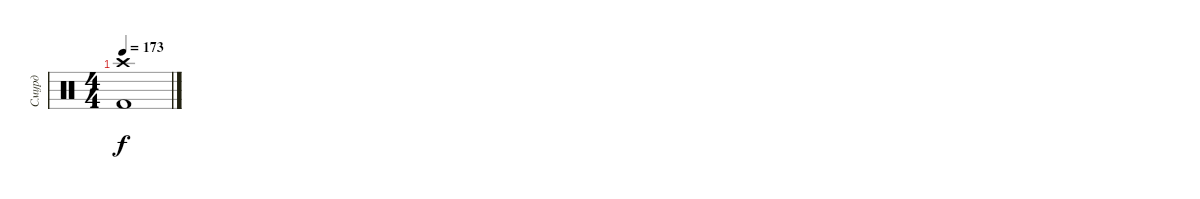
\track ("Смурд" "Смурд") {instrument percussion}
\staff {score}
\articulation defaults
\ts (4 4)
\tempo 173
\clef neutral
\ks c
("Crash high (hit)" "Kick (hit) 2").1{dy f}
